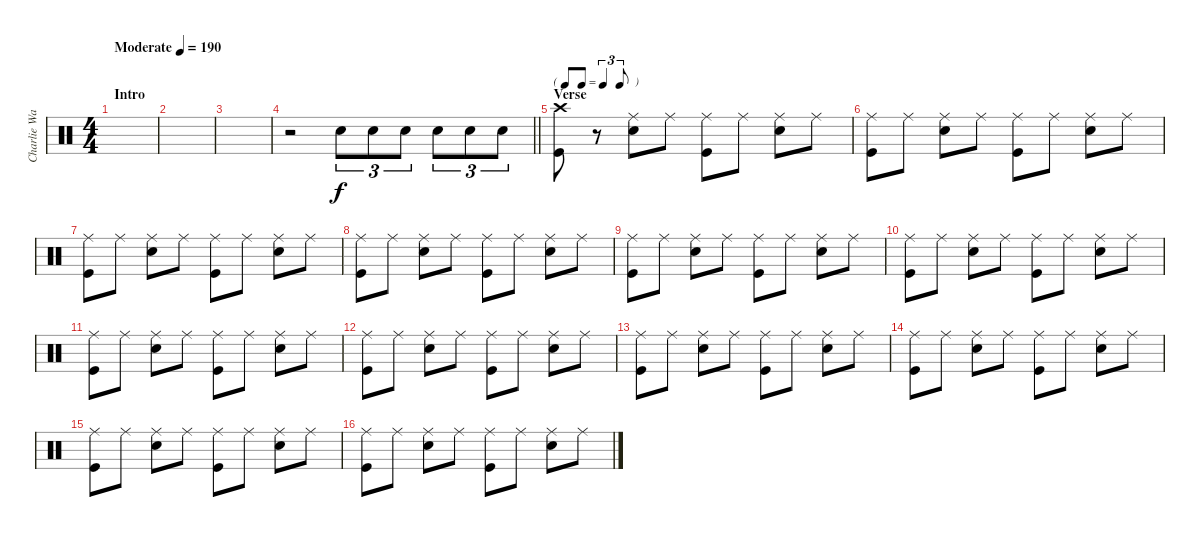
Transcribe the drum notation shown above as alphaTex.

\track ("Charlie Watts" "Charlie Wa") {instrument percussion}
\staff {score}
\articulation defaults
\ts (4 4)
\section ("" "Intro")
\tempo (190 "Moderate")
\clef neutral
\ks c
|
|
|
\barLineRight lightlight
r.2 "Snare (hit) 2".8{tu (3 2)} "Snare (hit) 2".8{tu (3 2)} "Snare (hit) 2".8{tu (3 2)} "Snare (hit) 2".8{tu (3 2)} "Snare (hit) 2".8{tu (3 2)} "Snare (hit) 2".8{tu (3 2)} |
\tf triplet8th
\section ("" "Verse")
("Crash high (hit)" "Kick (hit)").8 r.8 ("Ride (middle)" "Snare (hit) 2").8 "Ride (middle)".8 ("Ride (middle)" "Kick (hit)").8 "Ride (middle)".8 ("Ride (middle)" "Snare (hit) 2").8 "Ride (middle)".8 |
("Ride (middle)" "Kick (hit)").8 "Ride (middle)".8 ("Ride (middle)" "Snare (hit) 2").8 "Ride (middle)".8 ("Ride (middle)" "Kick (hit)").8 "Ride (middle)".8 ("Ride (middle)" "Snare (hit) 2").8 "Ride (middle)".8 |
("Ride (middle)" "Kick (hit)").8 "Ride (middle)".8 ("Ride (middle)" "Snare (hit) 2").8 "Ride (middle)".8 ("Ride (middle)" "Kick (hit)").8 "Ride (middle)".8 ("Ride (middle)" "Snare (hit) 2").8 "Ride (middle)".8 |
("Ride (middle)" "Kick (hit)").8 "Ride (middle)".8 ("Ride (middle)" "Snare (hit) 2").8 "Ride (middle)".8 ("Ride (middle)" "Kick (hit)").8 "Ride (middle)".8 ("Ride (middle)" "Snare (hit) 2").8 "Ride (middle)".8 |
("Ride (middle)" "Kick (hit)").8 "Ride (middle)".8 ("Ride (middle)" "Snare (hit) 2").8 "Ride (middle)".8 ("Ride (middle)" "Kick (hit)").8 "Ride (middle)".8 ("Ride (middle)" "Snare (hit) 2").8 "Ride (middle)".8 |
("Ride (middle)" "Kick (hit)").8 "Ride (middle)".8 ("Ride (middle)" "Snare (hit) 2").8 "Ride (middle)".8 ("Ride (middle)" "Kick (hit)").8 "Ride (middle)".8 ("Ride (middle)" "Snare (hit) 2").8 "Ride (middle)".8 |
("Ride (middle)" "Kick (hit)").8 "Ride (middle)".8 ("Ride (middle)" "Snare (hit) 2").8 "Ride (middle)".8 ("Ride (middle)" "Kick (hit)").8 "Ride (middle)".8 ("Ride (middle)" "Snare (hit) 2").8 "Ride (middle)".8 |
("Ride (middle)" "Kick (hit)").8 "Ride (middle)".8 ("Ride (middle)" "Snare (hit) 2").8 "Ride (middle)".8 ("Ride (middle)" "Kick (hit)").8 "Ride (middle)".8 ("Ride (middle)" "Snare (hit) 2").8 "Ride (middle)".8 |
("Ride (middle)" "Kick (hit)").8 "Ride (middle)".8 ("Ride (middle)" "Snare (hit) 2").8 "Ride (middle)".8 ("Ride (middle)" "Kick (hit)").8 "Ride (middle)".8 ("Ride (middle)" "Snare (hit) 2").8 "Ride (middle)".8 |
("Ride (middle)" "Kick (hit)").8 "Ride (middle)".8 ("Ride (middle)" "Snare (hit) 2").8 "Ride (middle)".8 ("Ride (middle)" "Kick (hit)").8 "Ride (middle)".8 ("Ride (middle)" "Snare (hit) 2").8 "Ride (middle)".8 |
("Ride (middle)" "Kick (hit)").8 "Ride (middle)".8 ("Ride (middle)" "Snare (hit) 2").8 "Ride (middle)".8 ("Ride (middle)" "Kick (hit)").8 "Ride (middle)".8 ("Ride (middle)" "Snare (hit) 2").8 "Ride (middle)".8 |
("Ride (middle)" "Kick (hit)").8 "Ride (middle)".8 ("Ride (middle)" "Snare (hit) 2").8 "Ride (middle)".8 ("Ride (middle)" "Kick (hit)").8 "Ride (middle)".8 ("Ride (middle)" "Snare (hit) 2").8 "Ride (middle)".8
